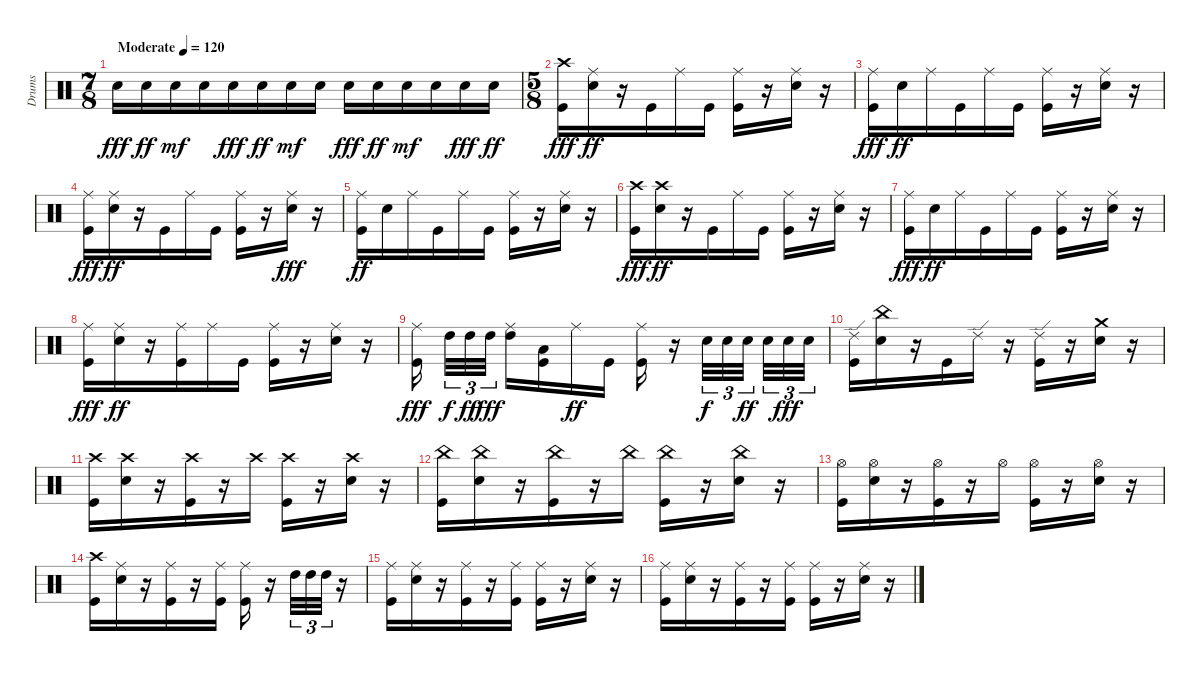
\track ("Drums" "Drums") {instrument percussion}
\staff {score}
\articulation defaults
\ts (7 8)
\tempo (120 "Moderate")
\clef neutral
\ks c "Electric Snare (hit)".16{dy fff} "Electric Snare (hit)".16{dy ff} "Electric Snare (hit)".16{dy mf} "Electric Snare (hit)".16 "Electric Snare (hit)".16{dy fff} "Electric Snare (hit)".16{dy ff} "Electric Snare (hit)".16{dy mf} "Electric Snare (hit)".16 "Electric Snare (hit)".16{dy fff} "Electric Snare (hit)".16{dy ff} "Electric Snare (hit)".16{dy mf} "Electric Snare (hit)".16 "Electric Snare (hit)".16{dy fff} "Electric Snare (hit)".16{dy ff}
|
\ts (5 8)
("Kick (hit)" "Crash high (hit)").16{dy fff} ("Snare (hit) 2" "Ride (middle)").16{dy ff} r.16 "Kick (hit)".16 "Ride (middle)".16 "Kick (hit)".16 ("Kick (hit)" "Ride (middle)").16 r.16 ("Snare (hit) 2" "Ride (middle)").16 r.16 |
("Kick (hit)" "Ride (middle)").16{dy fff} "Snare (hit) 2".16{dy ff} "Ride (middle)".16 "Kick (hit)".16 "Ride (middle)".16 "Kick (hit)".16 ("Kick (hit)" "Ride (middle)").16 r.16 ("Snare (hit) 2" "Ride (middle)").16 r.16 |
("Kick (hit)" "Ride (middle)").16{dy fff} ("Snare (hit) 2" "Ride (middle)").16{dy ff} r.16 "Kick (hit)".16 "Ride (middle)".16 "Kick (hit)".16 ("Kick (hit)" "Ride (middle)").16 r.16 ("Snare (hit) 2" "Ride (middle)").16{dy fff} r.16 |
("Kick (hit)" "Ride (middle)").16{dy ff} "Snare (hit) 2".16 "Ride (middle)".16 "Kick (hit)".16 "Ride (middle)".16 "Kick (hit)".16 ("Kick (hit)" "Ride (middle)").16 r.16 ("Snare (hit) 2" "Ride (middle)").16 r.16 |
("Kick (hit)" "Crash high (hit)").16{dy fff} ("Snare (hit) 2" "Crash high (hit)").16{dy ff} r.16 "Kick (hit)".16 "Ride (middle)".16 "Kick (hit)".16 ("Kick (hit)" "Ride (middle)").16 r.16 ("Snare (hit) 2" "Ride (middle)").16 r.16 |
("Kick (hit)" "Ride (middle)").16{dy fff} "Snare (hit) 2".16{dy ff} "Ride (middle)".16 "Kick (hit)".16 "Ride (middle)".16 "Kick (hit)".16 ("Kick (hit)" "Ride (middle)").16 r.16 ("Snare (hit) 2" "Ride (middle)").16 r.16 |
("Kick (hit)" "Ride (middle)").16{dy fff} ("Snare (hit) 2" "Ride (middle)").16{dy ff} r.16 ("Kick (hit)" "Ride (middle)").16 "Ride (middle)".16 "Kick (hit)".16 ("Kick (hit)" "Ride (middle)").16 r.16 ("Snare (hit) 2" "Ride (middle)").16 r.16 |
("Kick (hit)" "Ride (middle)").16{dy fff beam splitsecondary} "High Tom (hit)".32{tu (3 2) dy f} "High Tom (hit)".32{tu (3 2) dy ff} "High Tom (hit)".32{tu (3 2) dy fff} ("High Tom (hit)" "Ride (middle)").16 ("Kick (hit)" "Low Tom (hit)").16 "Ride (middle)".16{dy ff} "Kick (hit)".16 ("Kick (hit)" "Ride (middle)").16 r.16 "Electric Snare (hit)".32{tu (3 2) dy f} "Electric Snare (hit)".32{tu (3 2)} "Electric Snare (hit)".32{tu (3 2) dy ff beam splitsecondary} "Electric Snare (hit)".32{tu (3 2)} "Electric Snare (hit)".32{tu (3 2) dy fff} "Electric Snare (hit)".32{tu (3 2)} |
("Ride (edge) 2" "Kick (hit)").16 ("Snare (hit) 2" "China (hit)").16 r.16 "Kick (hit)".16 "Ride (edge) 2".16 r.16 ("Ride (edge) 2" "Kick (hit)").16 r.16 ("Snare (hit) 2" "Crash medium (hit)").16 r.16 |
("Kick (hit)" "Crash high (hit)").16 ("Snare (hit) 2" "Crash high (hit)").16 r.16 ("Kick (hit)" "Crash high (hit)").16 r.16 "Crash high (hit)".16 ("Kick (hit)" "Crash high (hit)").16 r.16 ("Snare (hit) 2" "Crash high (hit)").16 r.16 |
("Kick (hit)" "China (hit)").16 ("Snare (hit) 2" "China (hit)").16 r.16 ("Kick (hit)" "China (hit)").16 r.16 "China (hit)".16 ("Kick (hit)" "China (hit)").16 r.16 ("Snare (hit) 2" "China (hit)").16 r.16 |
("Kick (hit)" "Hi-Hat (open)").16 ("Snare (hit) 2" "Hi-Hat (open)").16 r.16 ("Kick (hit)" "Hi-Hat (open)").16 r.16 "Hi-Hat (open)".16 ("Kick (hit)" "Hi-Hat (open)").16 r.16 ("Snare (hit) 2" "Hi-Hat (open)").16 r.16 |
("Crash high (hit)" "Kick (hit)").16 ("Snare (hit) 2" "Ride (middle)").16 r.16 ("Kick (hit)" "Ride (middle)").16 r.16 ("Kick (hit)" "Ride (middle)").16 ("Kick (hit)" "Ride (middle)").16 r.16 "High Tom (hit)".32{tu (3 2)} "High Tom (hit)".32{tu (3 2)} "High Tom (hit)".32{tu (3 2)} r.16 |
("Kick (hit)" "Ride (middle)").16 ("Snare (hit) 2" "Ride (middle)").16 r.16 ("Kick (hit)" "Ride (middle)").16 r.16 ("Kick (hit)" "Ride (middle)").16 ("Kick (hit)" "Ride (middle)").16 r.16 ("Snare (hit) 2" "Ride (middle)").16 r.16 |
("Ride (middle)" "Kick (hit)").16 ("Ride (middle)" "Snare (hit) 2").16 r.16 ("Ride (middle)" "Kick (hit)").16 r.16 ("Ride (middle)" "Kick (hit)").16 ("Ride (middle)" "Kick (hit)").16 r.16 ("Ride (middle)" "Snare (hit) 2").16 r.16
